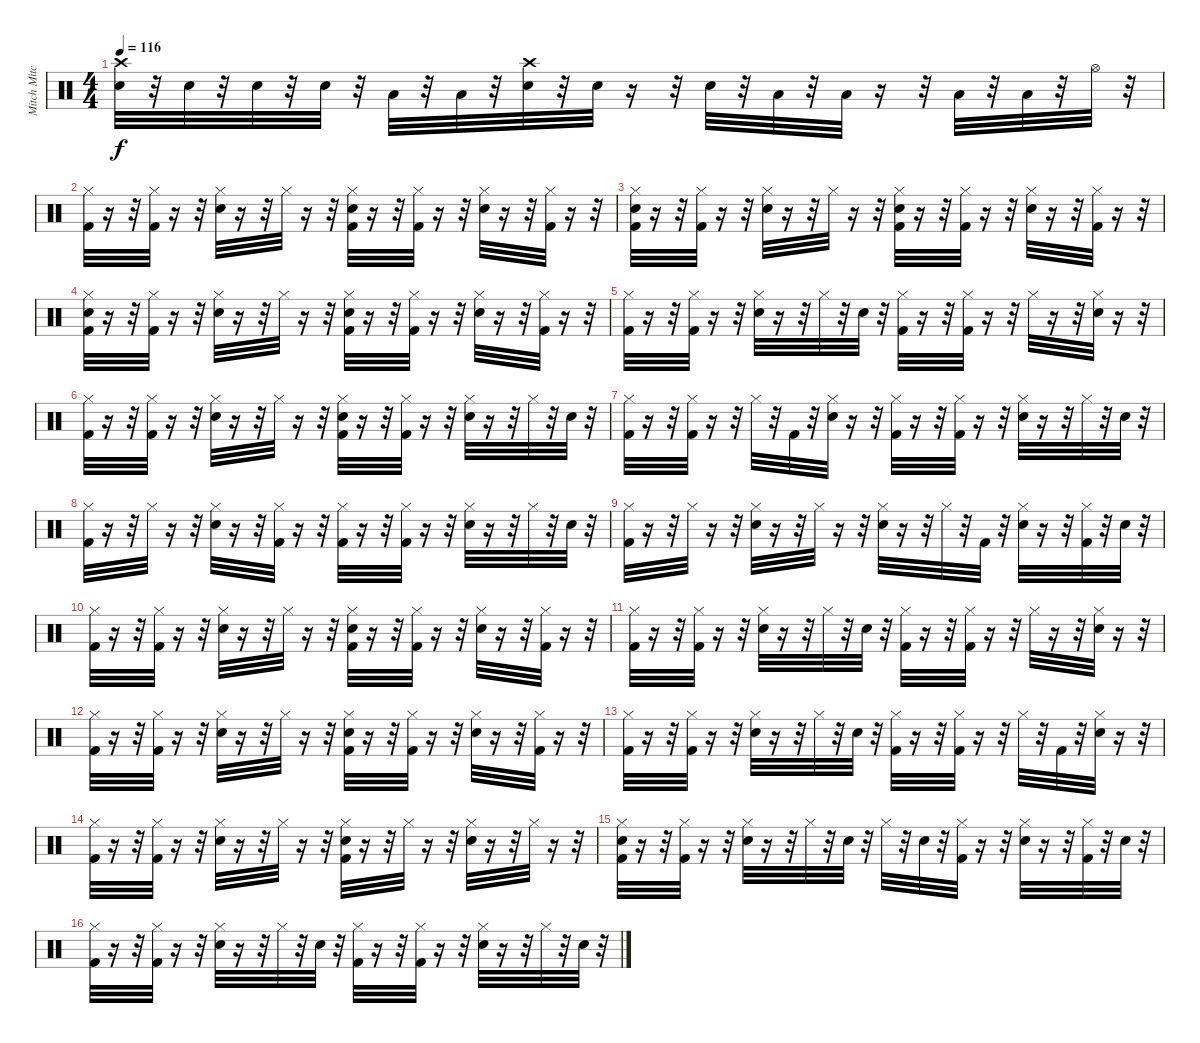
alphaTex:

\track ("Mitch Mitchell" "Mitch Mitc") {instrument percussion}
\staff {score}
\articulation defaults
\ts (4 4)
\tempo 116
\clef neutral
\ks c
("Snare (hit)" "Crash high (hit)").32{dy f} r.32 "Snare (hit) 2".32 r.32 "Snare (hit) 2".32 r.32 "Snare (hit) 2".32 r.32 "Low Floor Tom (hit)".32 r.32 "Low Floor Tom (hit)".32 r.32 ("Crash high (hit)" "Snare (hit)").32 r.32 "Snare (hit) 2".32 r.16 r.32 "Snare (hit) 2".32 r.32 "Low Floor Tom (hit)".32 r.32 "Low Floor Tom (hit)".32 r.16 r.32 "Low Floor Tom (hit)".32 r.32 "Low Floor Tom (hit)".32 r.32 "Hi-Hat (open)".32 r.32 |
("Kick (hit) 2" "Hi-Hat (closed)").32 r.16 r.32 ("Kick (hit) 2" "Hi-Hat (closed)").32 r.16 r.32 ("Snare (hit) 2" "Hi-Hat (closed)").32 r.16 r.32 "Hi-Hat (closed)".32 r.16 r.32 ("Kick (hit) 2" "Snare (hit) 2" "Hi-Hat (closed)").32 r.16 r.32 ("Kick (hit) 2" "Hi-Hat (closed)").32 r.16 r.32 ("Snare (hit) 2" "Hi-Hat (closed)").32 r.16 r.32 ("Kick (hit) 2" "Hi-Hat (closed)").32 r.16 r.32 |
("Snare (hit) 2" "Kick (hit) 2" "Hi-Hat (closed)").32 r.16 r.32 ("Kick (hit) 2" "Hi-Hat (closed)").32 r.16 r.32 ("Snare (hit) 2" "Hi-Hat (closed)").32 r.16 r.32 "Hi-Hat (closed)".32 r.16 r.32 ("Snare (hit) 2" "Kick (hit) 2" "Hi-Hat (closed)").32 r.16 r.32 ("Kick (hit) 2" "Hi-Hat (closed)").32 r.16 r.32 ("Snare (hit) 2" "Hi-Hat (closed)").32 r.16 r.32 ("Kick (hit) 2" "Hi-Hat (closed)").32 r.16 r.32 |
("Snare (hit) 2" "Kick (hit) 2" "Hi-Hat (closed)").32 r.16 r.32 ("Kick (hit) 2" "Hi-Hat (closed)").32 r.16 r.32 ("Snare (hit) 2" "Hi-Hat (closed)").32 r.16 r.32 "Hi-Hat (closed)".32 r.16 r.32 ("Snare (hit) 2" "Kick (hit) 2" "Hi-Hat (closed)").32 r.16 r.32 ("Kick (hit) 2" "Hi-Hat (closed)").32 r.16 r.32 ("Snare (hit) 2" "Hi-Hat (closed)").32 r.16 r.32 ("Kick (hit) 2" "Hi-Hat (closed)").32 r.16 r.32 |
("Hi-Hat (closed)" "Kick (hit) 2").32 r.16 r.32 ("Hi-Hat (closed)" "Kick (hit) 2").32 r.16 r.32 ("Hi-Hat (closed)" "Snare (hit) 2").32 r.16 r.32 "Hi-Hat (closed)".32 r.32 "Snare (hit) 2".32 r.32 ("Hi-Hat (closed)" "Kick (hit) 2").32 r.16 r.32 ("Hi-Hat (closed)" "Kick (hit) 2").32 r.16 r.32 "Hi-Hat (closed)".32 r.16 r.32 ("Hi-Hat (closed)" "Snare (hit) 2").32 r.16 r.32 |
("Kick (hit) 2" "Hi-Hat (closed)").32 r.16 r.32 ("Kick (hit) 2" "Hi-Hat (closed)").32 r.16 r.32 ("Snare (hit) 2" "Hi-Hat (closed)").32 r.16 r.32 "Hi-Hat (closed)".32 r.16 r.32 ("Snare (hit) 2" "Kick (hit) 2" "Hi-Hat (closed)").32 r.16 r.32 ("Kick (hit) 2" "Hi-Hat (closed)").32 r.16 r.32 ("Snare (hit) 2" "Hi-Hat (closed)").32 r.16 r.32 "Hi-Hat (closed)".32 r.32 "Snare (hit) 2".32 r.32 |
("Kick (hit) 2" "Hi-Hat (closed)").32 r.16 r.32 ("Kick (hit) 2" "Hi-Hat (closed)").32 r.16 r.32 "Hi-Hat (closed)".32 r.32 "Kick (hit) 2".32 r.32 ("Snare (hit) 2" "Hi-Hat (closed)").32 r.16 r.32 ("Kick (hit) 2" "Hi-Hat (closed)").32 r.16 r.32 ("Kick (hit) 2" "Hi-Hat (closed)").32 r.16 r.32 ("Snare (hit) 2" "Hi-Hat (closed)").32 r.16 r.32 "Hi-Hat (closed)".32 r.32 "Snare (hit) 2".32 r.32 |
("Kick (hit) 2" "Hi-Hat (closed)").32 r.16 r.32 "Hi-Hat (closed)".32 r.16 r.32 ("Snare (hit) 2" "Hi-Hat (closed)").32 r.16 r.32 ("Kick (hit) 2" "Hi-Hat (closed)").32 r.16 r.32 ("Kick (hit) 2" "Hi-Hat (closed)").32 r.16 r.32 ("Kick (hit) 2" "Hi-Hat (closed)").32 r.16 r.32 ("Snare (hit) 2" "Hi-Hat (closed)").32 r.16 r.32 "Hi-Hat (closed)".32 r.32 "Snare (hit) 2".32 r.32 |
("Kick (hit) 2" "Hi-Hat (closed)").32 r.16 r.32 "Hi-Hat (closed)".32 r.16 r.32 ("Snare (hit) 2" "Hi-Hat (closed)").32 r.16 r.32 "Hi-Hat (closed)".32 r.16 r.32 ("Snare (hit) 2" "Hi-Hat (closed)").32 r.16 r.32 "Hi-Hat (closed)".32 r.32 "Kick (hit) 2".32 r.32 ("Snare (hit) 2" "Hi-Hat (closed)").32 r.16 r.32 ("Kick (hit) 2" "Hi-Hat (closed)").32 r.32 "Snare (hit) 2".32 r.32 |
("Kick (hit) 2" "Hi-Hat (closed)").32 r.16 r.32 ("Kick (hit) 2" "Hi-Hat (closed)").32 r.16 r.32 ("Snare (hit) 2" "Hi-Hat (closed)").32 r.16 r.32 "Hi-Hat (closed)".32 r.16 r.32 ("Kick (hit) 2" "Snare (hit) 2" "Hi-Hat (closed)").32 r.16 r.32 ("Kick (hit) 2" "Hi-Hat (closed)").32 r.16 r.32 ("Snare (hit) 2" "Hi-Hat (closed)").32 r.16 r.32 ("Kick (hit) 2" "Hi-Hat (closed)").32 r.16 r.32 |
("Kick (hit) 2" "Hi-Hat (closed)").32 r.16 r.32 ("Kick (hit) 2" "Hi-Hat (closed)").32 r.16 r.32 ("Snare (hit) 2" "Hi-Hat (closed)").32 r.16 r.32 "Hi-Hat (closed)".32 r.32 "Snare (hit) 2".32 r.32 ("Kick (hit) 2" "Hi-Hat (closed)").32 r.16 r.32 ("Kick (hit) 2" "Hi-Hat (closed)").32 r.16 r.32 "Hi-Hat (closed)".32 r.16 r.32 ("Snare (hit) 2" "Hi-Hat (closed)").32 r.16 r.32 |
("Kick (hit) 2" "Hi-Hat (closed)").32 r.16 r.32 ("Kick (hit) 2" "Hi-Hat (closed)").32 r.16 r.32 ("Snare (hit) 2" "Hi-Hat (closed)").32 r.16 r.32 "Hi-Hat (closed)".32 r.16 r.32 ("Kick (hit) 2" "Snare (hit) 2" "Hi-Hat (closed)").32 r.16 r.32 ("Hi-Hat (closed)" "Kick (hit) 2").32 r.16 r.32 ("Hi-Hat (closed)" "Snare (hit) 2").32 r.16 r.32 ("Kick (hit) 2" "Hi-Hat (closed)").32 r.16 r.32 |
("Kick (hit) 2" "Hi-Hat (closed)").32 r.16 r.32 ("Kick (hit) 2" "Hi-Hat (closed)").32 r.16 r.32 ("Snare (hit) 2" "Hi-Hat (closed)").32 r.16 r.32 "Hi-Hat (closed)".32 r.32 "Snare (hit) 2".32 r.32 ("Kick (hit) 2" "Hi-Hat (closed)").32 r.16 r.32 ("Kick (hit) 2" "Hi-Hat (closed)").32 r.16 r.32 "Hi-Hat (closed)".32 r.32 "Kick (hit) 2".32 r.32 ("Snare (hit) 2" "Hi-Hat (closed)").32 r.16 r.32 |
("Kick (hit) 2" "Hi-Hat (closed)").32 r.16 r.32 ("Kick (hit) 2" "Hi-Hat (closed)").32 r.16 r.32 ("Snare (hit) 2" "Hi-Hat (closed)").32 r.16 r.32 "Hi-Hat (closed)".32 r.16 r.32 ("Kick (hit) 2" "Snare (hit) 2" "Hi-Hat (closed)").32 r.16 r.32 "Hi-Hat (closed)".32 r.16 r.32 ("Snare (hit) 2" "Hi-Hat (closed)").32 r.16 r.32 "Hi-Hat (closed)".32 r.16 r.32 |
("Snare (hit) 2" "Kick (hit) 2" "Hi-Hat (closed)").32 r.16 r.32 ("Kick (hit) 2" "Hi-Hat (closed)").32 r.16 r.32 ("Snare (hit) 2" "Hi-Hat (closed)").32 r.16 r.32 "Hi-Hat (closed)".32 r.32 "Snare (hit) 2".32 r.32 "Hi-Hat (closed)".32 r.32 "Snare (hit) 2".32 r.32 ("Kick (hit) 2" "Hi-Hat (closed)").32 r.16 r.32 ("Snare (hit) 2" "Hi-Hat (closed)").32 r.16 r.32 ("Kick (hit) 2" "Hi-Hat (closed)").32 r.32 "Snare (hit) 2".32 r.32 |
("Kick (hit) 2" "Hi-Hat (closed)").32 r.16 r.32 ("Kick (hit) 2" "Hi-Hat (closed)").32 r.16 r.32 ("Snare (hit) 2" "Hi-Hat (closed)").32 r.16 r.32 "Hi-Hat (closed)".32 r.32 "Snare (hit) 2".32 r.32 ("Kick (hit) 2" "Hi-Hat (closed)").32 r.16 r.32 ("Kick (hit) 2" "Hi-Hat (closed)").32 r.16 r.32 ("Snare (hit) 2" "Hi-Hat (closed)").32 r.16 r.32 "Hi-Hat (closed)".32 r.32 "Snare (hit) 2".32 r.32
